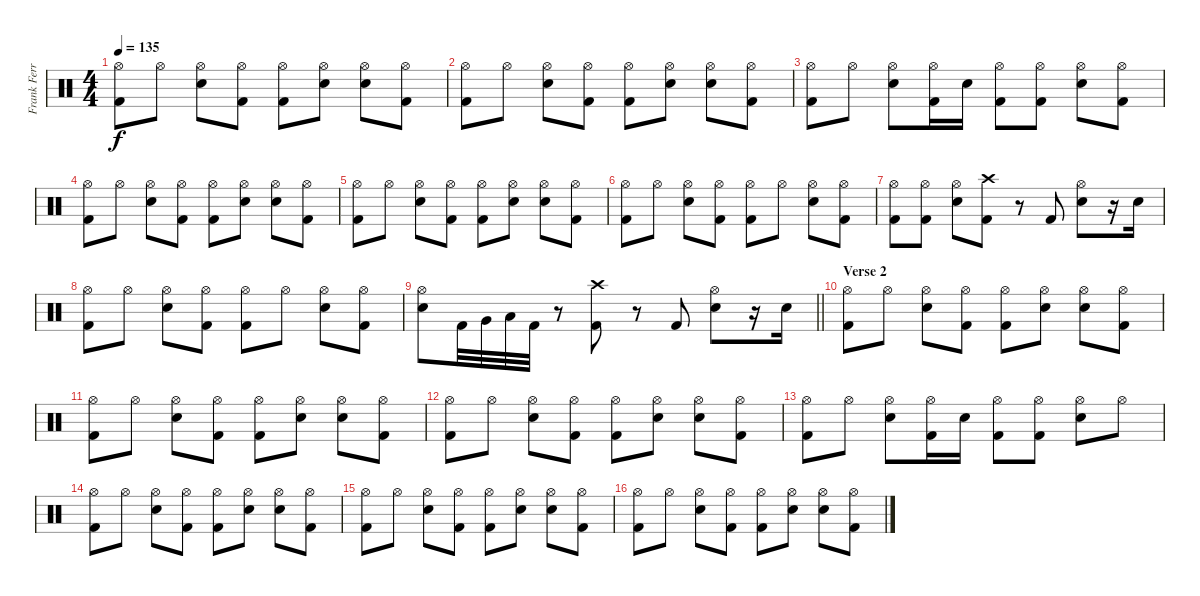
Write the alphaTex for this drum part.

\track ("Frank Ferrer" "Frank Ferr") {instrument percussion}
\staff {score}
\articulation defaults
\ts (4 4)
\tempo 135
\clef neutral
\ks c
("Hi-Hat (open)" "Kick (hit) 2").8{dy f} "Hi-Hat (open)".8 ("Hi-Hat (open)" "Electric Snare (hit)").8 ("Hi-Hat (open)" "Kick (hit) 2").8 ("Hi-Hat (open)" "Kick (hit) 2").8 ("Hi-Hat (open)" "Electric Snare (hit)").8 ("Hi-Hat (open)" "Electric Snare (hit)").8 ("Hi-Hat (open)" "Kick (hit) 2").8 |
("Hi-Hat (open)" "Kick (hit) 2").8 "Hi-Hat (open)".8 ("Hi-Hat (open)" "Electric Snare (hit)").8 ("Hi-Hat (open)" "Kick (hit) 2").8 ("Hi-Hat (open)" "Kick (hit) 2").8 ("Hi-Hat (open)" "Electric Snare (hit)").8 ("Hi-Hat (open)" "Electric Snare (hit)").8 ("Hi-Hat (open)" "Kick (hit) 2").8 |
("Hi-Hat (open)" "Kick (hit) 2").8 "Hi-Hat (open)".8 ("Hi-Hat (open)" "Electric Snare (hit)").8 ("Hi-Hat (open)" "Kick (hit) 2").16 "Electric Snare (hit)".16 ("Hi-Hat (open)" "Kick (hit) 2").8 ("Hi-Hat (open)" "Kick (hit) 2").8 ("Hi-Hat (open)" "Electric Snare (hit)").8 ("Hi-Hat (open)" "Kick (hit) 2").8 |
("Hi-Hat (open)" "Kick (hit) 2").8 "Hi-Hat (open)".8 ("Hi-Hat (open)" "Electric Snare (hit)").8 ("Hi-Hat (open)" "Kick (hit) 2").8 ("Hi-Hat (open)" "Kick (hit) 2").8 ("Hi-Hat (open)" "Electric Snare (hit)").8 ("Hi-Hat (open)" "Electric Snare (hit)").8 ("Hi-Hat (open)" "Kick (hit) 2").8 |
("Hi-Hat (open)" "Kick (hit) 2").8 "Hi-Hat (open)".8 ("Hi-Hat (open)" "Electric Snare (hit)").8 ("Hi-Hat (open)" "Kick (hit) 2").8 ("Hi-Hat (open)" "Kick (hit) 2").8 ("Hi-Hat (open)" "Electric Snare (hit)").8 ("Hi-Hat (open)" "Electric Snare (hit)").8 ("Hi-Hat (open)" "Kick (hit) 2").8 |
("Hi-Hat (open)" "Kick (hit) 2").8 "Hi-Hat (open)".8 ("Hi-Hat (open)" "Electric Snare (hit)").8 ("Hi-Hat (open)" "Kick (hit) 2").8 ("Hi-Hat (open)" "Kick (hit) 2").8 "Hi-Hat (open)".8 ("Hi-Hat (open)" "Electric Snare (hit)").8 ("Hi-Hat (open)" "Kick (hit) 2").8 |
("Hi-Hat (open)" "Kick (hit) 2").8 ("Hi-Hat (open)" "Kick (hit) 2").8 ("Hi-Hat (open)" "Electric Snare (hit)").8 ("Crash high (hit)" "Kick (hit) 2").8 r.8 "Kick (hit) 2".8 ("Hi-Hat (open)" "Electric Snare (hit)").8 r.16 "Electric Snare (hit)".16 |
("Hi-Hat (open)" "Kick (hit) 2").8 "Hi-Hat (open)".8 ("Hi-Hat (open)" "Electric Snare (hit)").8 ("Hi-Hat (open)" "Kick (hit) 2").8 ("Hi-Hat (open)" "Kick (hit) 2").8 "Hi-Hat (open)".8 ("Hi-Hat (open)" "Electric Snare (hit)").8 ("Hi-Hat (open)" "Kick (hit) 2").8 |
\barLineRight lightlight
("Hi-Hat (open)" "Electric Snare (hit)").8 "Kick (hit) 2".32 "Very Low Tom (hit)".32 "Low Tom (hit)".32 "Kick (hit) 2".32 r.8 ("Crash high (hit)" "Kick (hit) 2").8 r.8 "Kick (hit) 2".8 ("Hi-Hat (open)" "Electric Snare (hit)").8 r.16 "Electric Snare (hit)".16 |
\section ("" "Verse 2")
("Hi-Hat (open)" "Kick (hit) 2").8 "Hi-Hat (open)".8 ("Hi-Hat (open)" "Electric Snare (hit)").8 ("Hi-Hat (open)" "Kick (hit) 2").8 ("Hi-Hat (open)" "Kick (hit) 2").8 ("Hi-Hat (open)" "Electric Snare (hit)").8 ("Hi-Hat (open)" "Electric Snare (hit)").8 ("Hi-Hat (open)" "Kick (hit) 2").8 |
("Hi-Hat (open)" "Kick (hit) 2").8 "Hi-Hat (open)".8 ("Hi-Hat (open)" "Electric Snare (hit)").8 ("Hi-Hat (open)" "Kick (hit) 2").8 ("Hi-Hat (open)" "Kick (hit) 2").8 ("Hi-Hat (open)" "Electric Snare (hit)").8 ("Hi-Hat (open)" "Electric Snare (hit)").8 ("Hi-Hat (open)" "Kick (hit) 2").8 |
("Hi-Hat (open)" "Kick (hit) 2").8 "Hi-Hat (open)".8 ("Hi-Hat (open)" "Electric Snare (hit)").8 ("Hi-Hat (open)" "Kick (hit) 2").8 ("Hi-Hat (open)" "Kick (hit) 2").8 ("Hi-Hat (open)" "Electric Snare (hit)").8 ("Hi-Hat (open)" "Electric Snare (hit)").8 ("Hi-Hat (open)" "Kick (hit) 2").8 |
("Hi-Hat (open)" "Kick (hit) 2").8 "Hi-Hat (open)".8 ("Hi-Hat (open)" "Electric Snare (hit)").8 ("Hi-Hat (open)" "Kick (hit) 2").16 "Electric Snare (hit)".16 ("Hi-Hat (open)" "Kick (hit) 2").8 ("Hi-Hat (open)" "Kick (hit) 2").8 ("Hi-Hat (open)" "Electric Snare (hit)").8 "Hi-Hat (open)".8 |
("Hi-Hat (open)" "Kick (hit) 2").8 "Hi-Hat (open)".8 ("Hi-Hat (open)" "Electric Snare (hit)").8 ("Hi-Hat (open)" "Kick (hit) 2").8 ("Hi-Hat (open)" "Kick (hit) 2").8 ("Hi-Hat (open)" "Electric Snare (hit)").8 ("Hi-Hat (open)" "Electric Snare (hit)").8 ("Hi-Hat (open)" "Kick (hit) 2").8 |
("Hi-Hat (open)" "Kick (hit) 2").8 "Hi-Hat (open)".8 ("Hi-Hat (open)" "Electric Snare (hit)").8 ("Hi-Hat (open)" "Kick (hit) 2").8 ("Hi-Hat (open)" "Kick (hit) 2").8 ("Hi-Hat (open)" "Electric Snare (hit)").8 ("Hi-Hat (open)" "Electric Snare (hit)").8 ("Hi-Hat (open)" "Kick (hit) 2").8 |
("Hi-Hat (open)" "Kick (hit) 2").8 "Hi-Hat (open)".8 ("Hi-Hat (open)" "Electric Snare (hit)").8 ("Hi-Hat (open)" "Kick (hit) 2").8 ("Hi-Hat (open)" "Kick (hit) 2").8 ("Hi-Hat (open)" "Electric Snare (hit)").8 ("Hi-Hat (open)" "Electric Snare (hit)").8 ("Hi-Hat (open)" "Kick (hit) 2").8
